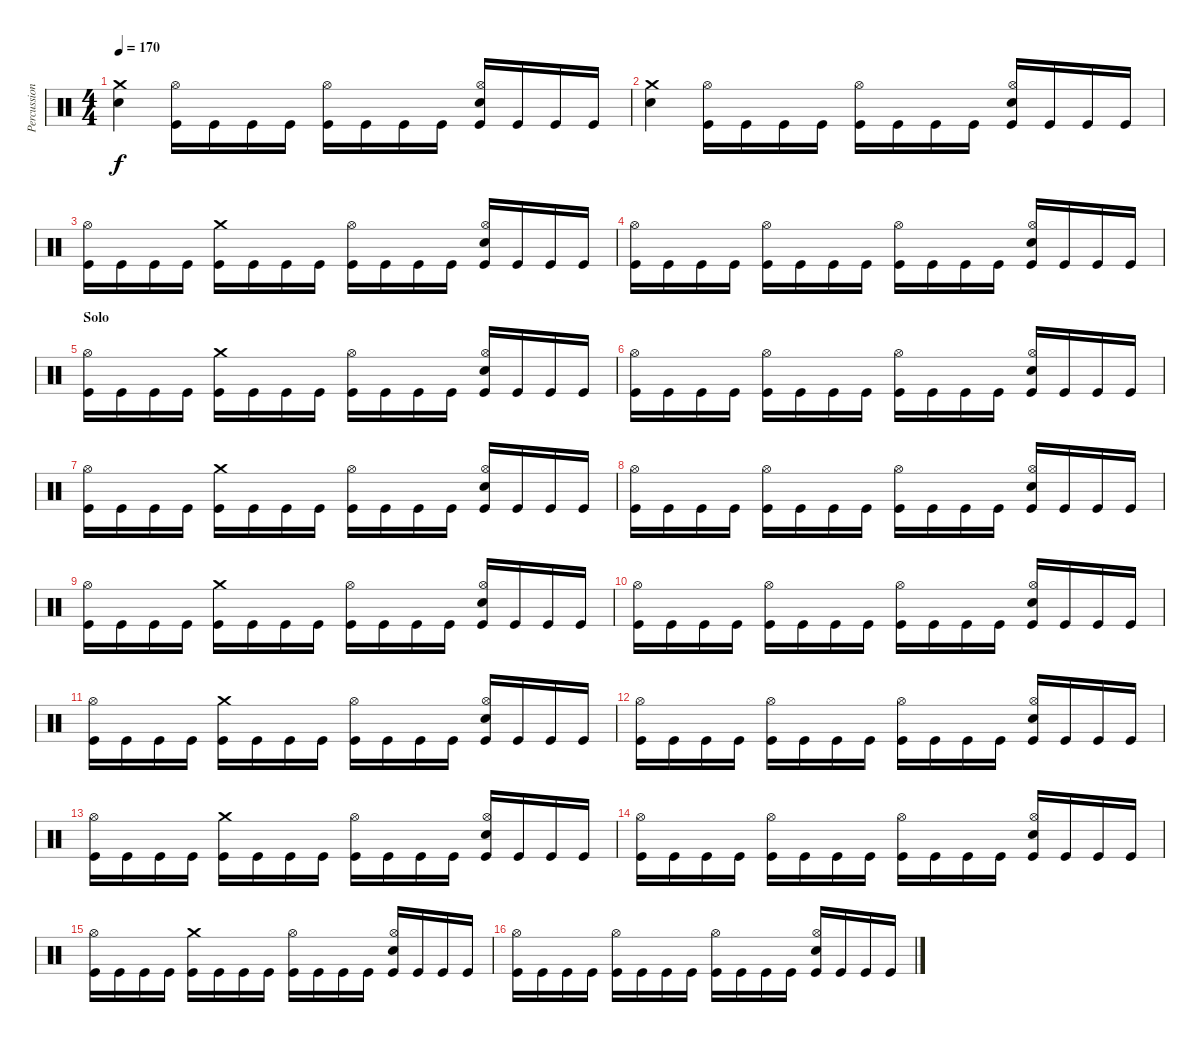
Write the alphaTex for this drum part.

\track ("Percussion" "Percussion") {instrument percussion}
\staff {score}
\articulation defaults
\ts (4 4)
\tempo 170
\clef neutral
\ks c
("Crash medium (hit)" "Snare (hit) 2").4{dy f} ("Hi-Hat (open)" "Kick (hit)").16 "Kick (hit)".16 "Kick (hit)".16 "Kick (hit)".16 ("Hi-Hat (open)" "Kick (hit)").16 "Kick (hit)".16 "Kick (hit)".16 "Kick (hit)".16 ("Hi-Hat (open)" "Snare (hit) 2" "Kick (hit)").16 "Kick (hit)".16 "Kick (hit)".16 "Kick (hit)".16 |
("Crash medium (hit)" "Snare (hit) 2").4 ("Hi-Hat (open)" "Kick (hit)").16 "Kick (hit)".16 "Kick (hit)".16 "Kick (hit)".16 ("Hi-Hat (open)" "Kick (hit)").16 "Kick (hit)".16 "Kick (hit)".16 "Kick (hit)".16 ("Hi-Hat (open)" "Snare (hit) 2" "Kick (hit)").16 "Kick (hit)".16 "Kick (hit)".16 "Kick (hit)".16 |
("Hi-Hat (open)" "Kick (hit)").16 "Kick (hit)".16 "Kick (hit)".16 "Kick (hit)".16 ("Crash medium (hit)" "Kick (hit)").16 "Kick (hit)".16 "Kick (hit)".16 "Kick (hit)".16 ("Hi-Hat (open)" "Kick (hit)").16 "Kick (hit)".16 "Kick (hit)".16 "Kick (hit)".16 ("Hi-Hat (open)" "Snare (hit) 2" "Kick (hit)").16 "Kick (hit)".16 "Kick (hit)".16 "Kick (hit)".16 |
("Hi-Hat (open)" "Kick (hit)").16 "Kick (hit)".16 "Kick (hit)".16 "Kick (hit)".16 ("Hi-Hat (open)" "Kick (hit)").16 "Kick (hit)".16 "Kick (hit)".16 "Kick (hit)".16 ("Hi-Hat (open)" "Kick (hit)").16 "Kick (hit)".16 "Kick (hit)".16 "Kick (hit)".16 ("Hi-Hat (open)" "Snare (hit) 2" "Kick (hit)").16 "Kick (hit)".16 "Kick (hit)".16 "Kick (hit)".16 |
\section ("" "Solo")
("Hi-Hat (open)" "Kick (hit)").16 "Kick (hit)".16 "Kick (hit)".16 "Kick (hit)".16 ("Crash medium (hit)" "Kick (hit)").16 "Kick (hit)".16 "Kick (hit)".16 "Kick (hit)".16 ("Hi-Hat (open)" "Kick (hit)").16 "Kick (hit)".16 "Kick (hit)".16 "Kick (hit)".16 ("Hi-Hat (open)" "Snare (hit) 2" "Kick (hit)").16 "Kick (hit)".16 "Kick (hit)".16 "Kick (hit)".16 |
("Hi-Hat (open)" "Kick (hit)").16 "Kick (hit)".16 "Kick (hit)".16 "Kick (hit)".16 ("Hi-Hat (open)" "Kick (hit)").16 "Kick (hit)".16 "Kick (hit)".16 "Kick (hit)".16 ("Hi-Hat (open)" "Kick (hit)").16 "Kick (hit)".16 "Kick (hit)".16 "Kick (hit)".16 ("Hi-Hat (open)" "Snare (hit) 2" "Kick (hit)").16 "Kick (hit)".16 "Kick (hit)".16 "Kick (hit)".16 |
("Hi-Hat (open)" "Kick (hit)").16 "Kick (hit)".16 "Kick (hit)".16 "Kick (hit)".16 ("Crash medium (hit)" "Kick (hit)").16 "Kick (hit)".16 "Kick (hit)".16 "Kick (hit)".16 ("Hi-Hat (open)" "Kick (hit)").16 "Kick (hit)".16 "Kick (hit)".16 "Kick (hit)".16 ("Hi-Hat (open)" "Snare (hit) 2" "Kick (hit)").16 "Kick (hit)".16 "Kick (hit)".16 "Kick (hit)".16 |
("Hi-Hat (open)" "Kick (hit)").16 "Kick (hit)".16 "Kick (hit)".16 "Kick (hit)".16 ("Hi-Hat (open)" "Kick (hit)").16 "Kick (hit)".16 "Kick (hit)".16 "Kick (hit)".16 ("Hi-Hat (open)" "Kick (hit)").16 "Kick (hit)".16 "Kick (hit)".16 "Kick (hit)".16 ("Hi-Hat (open)" "Snare (hit) 2" "Kick (hit)").16 "Kick (hit)".16 "Kick (hit)".16 "Kick (hit)".16 |
("Hi-Hat (open)" "Kick (hit)").16 "Kick (hit)".16 "Kick (hit)".16 "Kick (hit)".16 ("Crash medium (hit)" "Kick (hit)").16 "Kick (hit)".16 "Kick (hit)".16 "Kick (hit)".16 ("Hi-Hat (open)" "Kick (hit)").16 "Kick (hit)".16 "Kick (hit)".16 "Kick (hit)".16 ("Hi-Hat (open)" "Snare (hit) 2" "Kick (hit)").16 "Kick (hit)".16 "Kick (hit)".16 "Kick (hit)".16 |
("Hi-Hat (open)" "Kick (hit)").16 "Kick (hit)".16 "Kick (hit)".16 "Kick (hit)".16 ("Hi-Hat (open)" "Kick (hit)").16 "Kick (hit)".16 "Kick (hit)".16 "Kick (hit)".16 ("Hi-Hat (open)" "Kick (hit)").16 "Kick (hit)".16 "Kick (hit)".16 "Kick (hit)".16 ("Hi-Hat (open)" "Snare (hit) 2" "Kick (hit)").16 "Kick (hit)".16 "Kick (hit)".16 "Kick (hit)".16 |
("Hi-Hat (open)" "Kick (hit)").16 "Kick (hit)".16 "Kick (hit)".16 "Kick (hit)".16 ("Crash medium (hit)" "Kick (hit)").16 "Kick (hit)".16 "Kick (hit)".16 "Kick (hit)".16 ("Hi-Hat (open)" "Kick (hit)").16 "Kick (hit)".16 "Kick (hit)".16 "Kick (hit)".16 ("Hi-Hat (open)" "Snare (hit) 2" "Kick (hit)").16 "Kick (hit)".16 "Kick (hit)".16 "Kick (hit)".16 |
("Hi-Hat (open)" "Kick (hit)").16 "Kick (hit)".16 "Kick (hit)".16 "Kick (hit)".16 ("Hi-Hat (open)" "Kick (hit)").16 "Kick (hit)".16 "Kick (hit)".16 "Kick (hit)".16 ("Hi-Hat (open)" "Kick (hit)").16 "Kick (hit)".16 "Kick (hit)".16 "Kick (hit)".16 ("Hi-Hat (open)" "Snare (hit) 2" "Kick (hit)").16 "Kick (hit)".16 "Kick (hit)".16 "Kick (hit)".16 |
("Hi-Hat (open)" "Kick (hit)").16 "Kick (hit)".16 "Kick (hit)".16 "Kick (hit)".16 ("Crash medium (hit)" "Kick (hit)").16 "Kick (hit)".16 "Kick (hit)".16 "Kick (hit)".16 ("Hi-Hat (open)" "Kick (hit)").16 "Kick (hit)".16 "Kick (hit)".16 "Kick (hit)".16 ("Hi-Hat (open)" "Snare (hit) 2" "Kick (hit)").16 "Kick (hit)".16 "Kick (hit)".16 "Kick (hit)".16 |
("Hi-Hat (open)" "Kick (hit)").16 "Kick (hit)".16 "Kick (hit)".16 "Kick (hit)".16 ("Hi-Hat (open)" "Kick (hit)").16 "Kick (hit)".16 "Kick (hit)".16 "Kick (hit)".16 ("Hi-Hat (open)" "Kick (hit)").16 "Kick (hit)".16 "Kick (hit)".16 "Kick (hit)".16 ("Hi-Hat (open)" "Snare (hit) 2" "Kick (hit)").16 "Kick (hit)".16 "Kick (hit)".16 "Kick (hit)".16 |
("Hi-Hat (open)" "Kick (hit)").16 "Kick (hit)".16 "Kick (hit)".16 "Kick (hit)".16 ("Crash medium (hit)" "Kick (hit)").16 "Kick (hit)".16 "Kick (hit)".16 "Kick (hit)".16 ("Hi-Hat (open)" "Kick (hit)").16 "Kick (hit)".16 "Kick (hit)".16 "Kick (hit)".16 ("Hi-Hat (open)" "Snare (hit) 2" "Kick (hit)").16 "Kick (hit)".16 "Kick (hit)".16 "Kick (hit)".16 |
("Hi-Hat (open)" "Kick (hit)").16 "Kick (hit)".16 "Kick (hit)".16 "Kick (hit)".16 ("Hi-Hat (open)" "Kick (hit)").16 "Kick (hit)".16 "Kick (hit)".16 "Kick (hit)".16 ("Hi-Hat (open)" "Kick (hit)").16 "Kick (hit)".16 "Kick (hit)".16 "Kick (hit)".16 ("Hi-Hat (open)" "Snare (hit) 2" "Kick (hit)").16 "Kick (hit)".16 "Kick (hit)".16 "Kick (hit)".16
